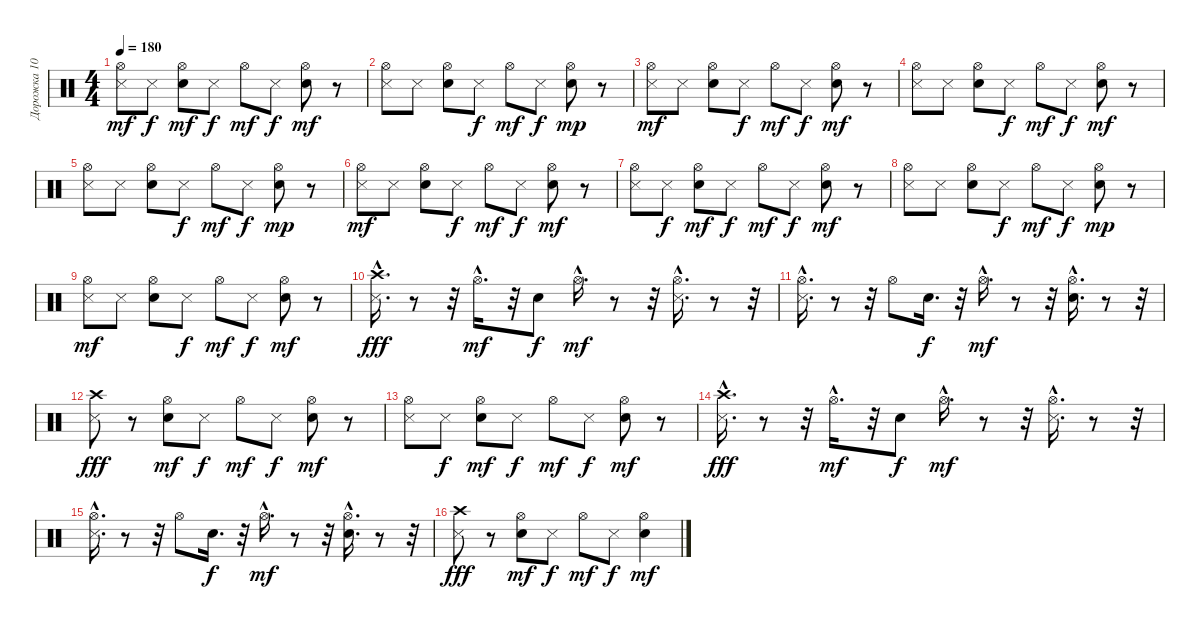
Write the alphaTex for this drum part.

\track ("Дорожка 10" "Дорожка 10") {instrument percussion}
\staff {score}
\articulation defaults
\ts (4 4)
\tempo 180
\clef neutral
\ks c
("Hi-Hat (open)" "Metronome (hit)").8{dy mf} "Metronome (hit)".8{dy f} ("Hi-Hat (open)" "Snare (hit) 2").8{dy mf} "Metronome (hit)".8{dy f} "Hi-Hat (open)".8{dy mf} "Metronome (hit)".8{dy f} ("Hi-Hat (open)" "Snare (hit) 2").8{dy mf} r.8 |
("Hi-Hat (open)" "Metronome (hit)").8 "Metronome (hit)".8 ("Hi-Hat (open)" "Snare (hit) 2").8 "Metronome (hit)".8{dy f} "Hi-Hat (open)".8{dy mf} "Metronome (hit)".8{dy f} ("Hi-Hat (open)" "Snare (hit) 2").8{dy mp} r.8 |
("Hi-Hat (open)" "Metronome (hit)").8{dy mf} "Metronome (hit)".8 ("Hi-Hat (open)" "Snare (hit) 2").8 "Metronome (hit)".8{dy f} "Hi-Hat (open)".8{dy mf} "Metronome (hit)".8{dy f} ("Hi-Hat (open)" "Snare (hit) 2").8{dy mf} r.8 |
("Hi-Hat (open)" "Metronome (hit)").8 "Metronome (hit)".8 ("Hi-Hat (open)" "Snare (hit) 2").8 "Metronome (hit)".8{dy f} "Hi-Hat (open)".8{dy mf} "Metronome (hit)".8{dy f} ("Hi-Hat (open)" "Snare (hit) 2").8{dy mf} r.8 |
("Hi-Hat (open)" "Metronome (hit)").8 "Metronome (hit)".8 ("Hi-Hat (open)" "Snare (hit) 2").8 "Metronome (hit)".8{dy f} "Hi-Hat (open)".8{dy mf} "Metronome (hit)".8{dy f} ("Hi-Hat (open)" "Snare (hit) 2").8{dy mp} r.8 |
("Hi-Hat (open)" "Metronome (hit)").8{dy mf} "Metronome (hit)".8 ("Hi-Hat (open)" "Snare (hit) 2").8 "Metronome (hit)".8{dy f} "Hi-Hat (open)".8{dy mf} "Metronome (hit)".8{dy f} ("Hi-Hat (open)" "Snare (hit) 2").8{dy mf} r.8 |
("Hi-Hat (open)" "Metronome (hit)").8 "Metronome (hit)".8{dy f} ("Hi-Hat (open)" "Snare (hit) 2").8{dy mf} "Metronome (hit)".8{dy f} "Hi-Hat (open)".8{dy mf} "Metronome (hit)".8{dy f} ("Hi-Hat (open)" "Snare (hit) 2").8{dy mf} r.8 |
("Hi-Hat (open)" "Metronome (hit)").8 "Metronome (hit)".8 ("Hi-Hat (open)" "Snare (hit) 2").8 "Metronome (hit)".8{dy f} "Hi-Hat (open)".8{dy mf} "Metronome (hit)".8{dy f} ("Hi-Hat (open)" "Snare (hit) 2").8{dy mp} r.8 |
("Hi-Hat (open)" "Metronome (hit)").8{dy mf} "Metronome (hit)".8 ("Hi-Hat (open)" "Snare (hit) 2").8 "Metronome (hit)".8{dy f} "Hi-Hat (open)".8{dy mf} "Metronome (hit)".8{dy f} ("Hi-Hat (open)" "Snare (hit) 2").8{dy mf} r.8 |
("Metronome (hit)"{hac} "Crash high (hit)").16{d dy fff} r.8 r.32 "Hi-Hat (open)"{hac}.16{d dy mf} r.32 "Snare (hit) 2".8{dy f} "Hi-Hat (open)"{hac}.16{d dy mf} r.8 r.32 ("Hi-Hat (open)"{hac} "Metronome (hit)").16{d} r.8 r.32 |
("Hi-Hat (open)"{hac} "Metronome (hit)"{hac}).16{d} r.8 r.32 "Hi-Hat (open)".8 "Snare (hit) 2".16{d dy f} r.32 "Hi-Hat (open)"{hac}.16{d dy mf} r.8 r.32 ("Snare (hit) 2"{hac} "Hi-Hat (open)"{hac}).16{d} r.8 r.32 |
("Crash high (hit)" "Metronome (hit)").8{dy fff} r.8 ("Hi-Hat (open)" "Snare (hit) 2").8{dy mf} "Metronome (hit)".8{dy f} "Hi-Hat (open)".8{dy mf} "Metronome (hit)".8{dy f} ("Hi-Hat (open)" "Snare (hit) 2").8{dy mf} r.8 |
("Hi-Hat (open)" "Metronome (hit)").8 "Metronome (hit)".8{dy f} ("Hi-Hat (open)" "Snare (hit) 2").8{dy mf} "Metronome (hit)".8{dy f} "Hi-Hat (open)".8{dy mf} "Metronome (hit)".8{dy f} ("Hi-Hat (open)" "Snare (hit) 2").8{dy mf} r.8 |
("Metronome (hit)"{hac} "Crash high (hit)").16{d dy fff} r.8 r.32 "Hi-Hat (open)"{hac}.16{d dy mf} r.32 "Snare (hit) 2".8{dy f} "Hi-Hat (open)"{hac}.16{d dy mf} r.8 r.32 ("Hi-Hat (open)"{hac} "Metronome (hit)").16{d} r.8 r.32 |
("Hi-Hat (open)"{hac} "Metronome (hit)"{hac}).16{d} r.8 r.32 "Hi-Hat (open)".8 "Snare (hit) 2".16{d dy f} r.32 "Hi-Hat (open)"{hac}.16{d dy mf} r.8 r.32 ("Snare (hit) 2"{hac} "Hi-Hat (open)"{hac}).16{d} r.8 r.32 |
("Crash high (hit)" "Metronome (hit)").8{dy fff} r.8 ("Hi-Hat (open)" "Snare (hit) 2").8{dy mf} "Metronome (hit)".8{dy f} "Hi-Hat (open)".8{dy mf} "Metronome (hit)".8{dy f} ("Hi-Hat (open)" "Snare (hit) 2").4{dy mf}
